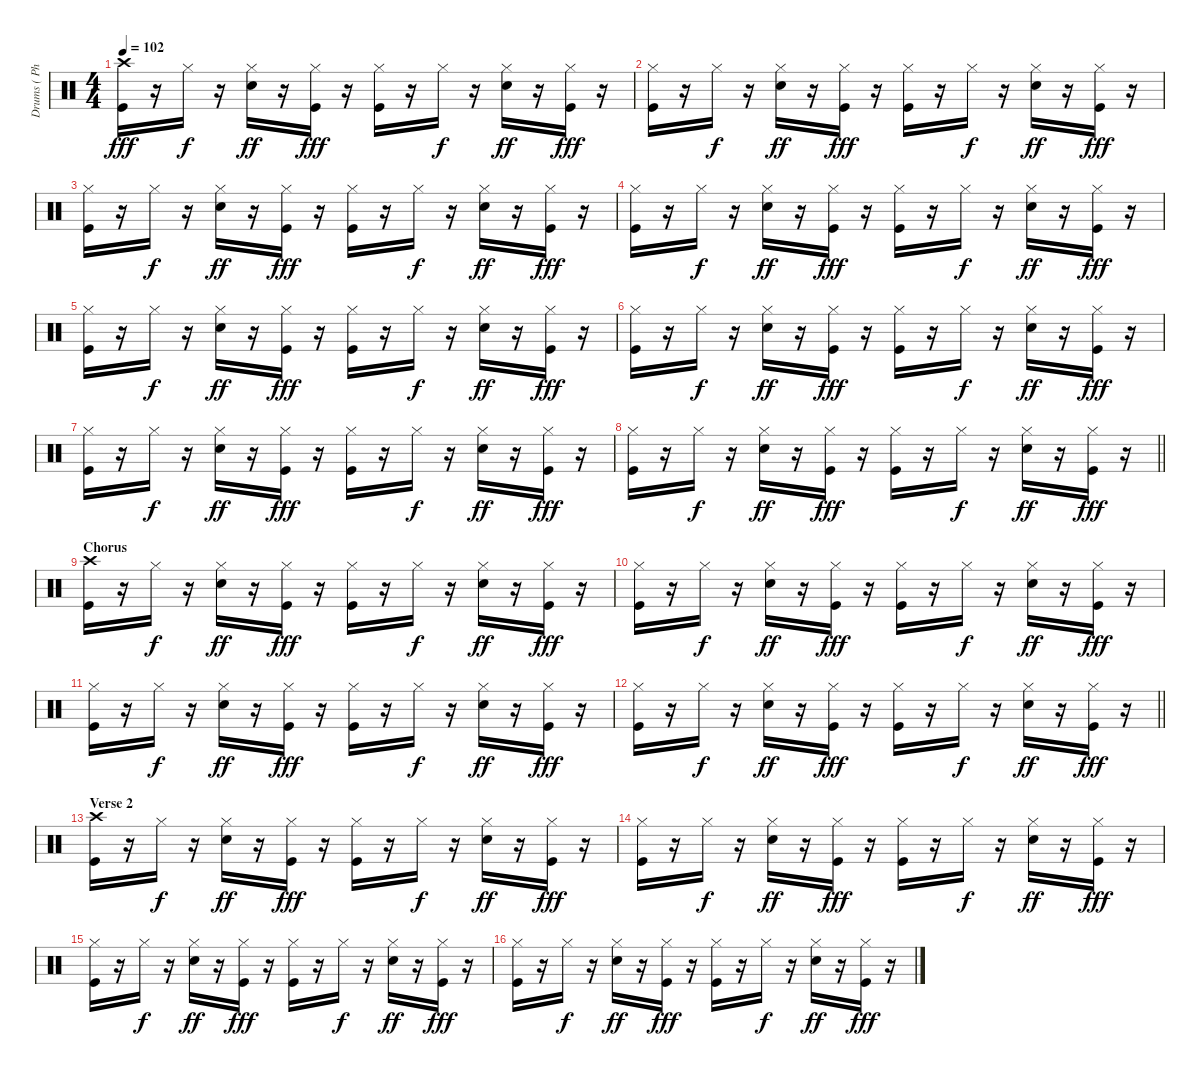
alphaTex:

\track ("Drums ( Phillip Selway )" "Drums ( Ph") {instrument percussion}
\staff {score}
\articulation defaults
\ts (4 4)
\tempo 102
\clef neutral
\ks c
("Crash high (hit)" "Kick (hit)").16{dy fff} r.16 "Hi-Hat (closed)".16{dy f} r.16 ("Hi-Hat (closed)" "Electric Snare (hit)").16{dy ff} r.16 ("Hi-Hat (closed)" "Kick (hit)").16{dy fff} r.16 ("Hi-Hat (closed)" "Kick (hit)").16 r.16 "Hi-Hat (closed)".16{dy f} r.16 ("Hi-Hat (closed)" "Electric Snare (hit)").16{dy ff} r.16 ("Hi-Hat (closed)" "Kick (hit)").16{dy fff} r.16 |
("Hi-Hat (closed)" "Kick (hit)").16 r.16 "Hi-Hat (closed)".16{dy f} r.16 ("Hi-Hat (closed)" "Electric Snare (hit)").16{dy ff} r.16 ("Hi-Hat (closed)" "Kick (hit)").16{dy fff} r.16 ("Hi-Hat (closed)" "Kick (hit)").16 r.16 "Hi-Hat (closed)".16{dy f} r.16 ("Hi-Hat (closed)" "Electric Snare (hit)").16{dy ff} r.16 ("Hi-Hat (closed)" "Kick (hit)").16{dy fff} r.16 |
("Hi-Hat (closed)" "Kick (hit)").16 r.16 "Hi-Hat (closed)".16{dy f} r.16 ("Hi-Hat (closed)" "Electric Snare (hit)").16{dy ff} r.16 ("Hi-Hat (closed)" "Kick (hit)").16{dy fff} r.16 ("Hi-Hat (closed)" "Kick (hit)").16 r.16 "Hi-Hat (closed)".16{dy f} r.16 ("Hi-Hat (closed)" "Electric Snare (hit)").16{dy ff} r.16 ("Hi-Hat (closed)" "Kick (hit)").16{dy fff} r.16 |
("Hi-Hat (closed)" "Kick (hit)").16 r.16 "Hi-Hat (closed)".16{dy f} r.16 ("Hi-Hat (closed)" "Electric Snare (hit)").16{dy ff} r.16 ("Hi-Hat (closed)" "Kick (hit)").16{dy fff} r.16 ("Hi-Hat (closed)" "Kick (hit)").16 r.16 "Hi-Hat (closed)".16{dy f} r.16 ("Hi-Hat (closed)" "Electric Snare (hit)").16{dy ff} r.16 ("Hi-Hat (closed)" "Kick (hit)").16{dy fff} r.16 |
("Hi-Hat (closed)" "Kick (hit)").16 r.16 "Hi-Hat (closed)".16{dy f} r.16 ("Hi-Hat (closed)" "Electric Snare (hit)").16{dy ff} r.16 ("Hi-Hat (closed)" "Kick (hit)").16{dy fff} r.16 ("Hi-Hat (closed)" "Kick (hit)").16 r.16 "Hi-Hat (closed)".16{dy f} r.16 ("Hi-Hat (closed)" "Electric Snare (hit)").16{dy ff} r.16 ("Hi-Hat (closed)" "Kick (hit)").16{dy fff} r.16 |
("Hi-Hat (closed)" "Kick (hit)").16 r.16 "Hi-Hat (closed)".16{dy f} r.16 ("Hi-Hat (closed)" "Electric Snare (hit)").16{dy ff} r.16 ("Hi-Hat (closed)" "Kick (hit)").16{dy fff} r.16 ("Hi-Hat (closed)" "Kick (hit)").16 r.16 "Hi-Hat (closed)".16{dy f} r.16 ("Hi-Hat (closed)" "Electric Snare (hit)").16{dy ff} r.16 ("Hi-Hat (closed)" "Kick (hit)").16{dy fff} r.16 |
("Hi-Hat (closed)" "Kick (hit)").16 r.16 "Hi-Hat (closed)".16{dy f} r.16 ("Hi-Hat (closed)" "Electric Snare (hit)").16{dy ff} r.16 ("Hi-Hat (closed)" "Kick (hit)").16{dy fff} r.16 ("Hi-Hat (closed)" "Kick (hit)").16 r.16 "Hi-Hat (closed)".16{dy f} r.16 ("Hi-Hat (closed)" "Electric Snare (hit)").16{dy ff} r.16 ("Hi-Hat (closed)" "Kick (hit)").16{dy fff} r.16 |
\barLineRight lightlight
("Hi-Hat (closed)" "Kick (hit)").16 r.16 "Hi-Hat (closed)".16{dy f} r.16 ("Hi-Hat (closed)" "Electric Snare (hit)").16{dy ff} r.16 ("Hi-Hat (closed)" "Kick (hit)").16{dy fff} r.16 ("Hi-Hat (closed)" "Kick (hit)").16 r.16 "Hi-Hat (closed)".16{dy f} r.16 ("Hi-Hat (closed)" "Electric Snare (hit)").16{dy ff} r.16 ("Hi-Hat (closed)" "Kick (hit)").16{dy fff} r.16 |
\section ("" "Chorus")
("Crash high (hit)" "Kick (hit)").16 r.16 "Hi-Hat (closed)".16{dy f} r.16 ("Hi-Hat (closed)" "Electric Snare (hit)").16{dy ff} r.16 ("Hi-Hat (closed)" "Kick (hit)").16{dy fff} r.16 ("Hi-Hat (closed)" "Kick (hit)").16 r.16 "Hi-Hat (closed)".16{dy f} r.16 ("Hi-Hat (closed)" "Electric Snare (hit)").16{dy ff} r.16 ("Hi-Hat (closed)" "Kick (hit)").16{dy fff} r.16 |
("Hi-Hat (closed)" "Kick (hit)").16 r.16 "Hi-Hat (closed)".16{dy f} r.16 ("Hi-Hat (closed)" "Electric Snare (hit)").16{dy ff} r.16 ("Hi-Hat (closed)" "Kick (hit)").16{dy fff} r.16 ("Hi-Hat (closed)" "Kick (hit)").16 r.16 "Hi-Hat (closed)".16{dy f} r.16 ("Hi-Hat (closed)" "Electric Snare (hit)").16{dy ff} r.16 ("Hi-Hat (closed)" "Kick (hit)").16{dy fff} r.16 |
("Hi-Hat (closed)" "Kick (hit)").16 r.16 "Hi-Hat (closed)".16{dy f} r.16 ("Hi-Hat (closed)" "Electric Snare (hit)").16{dy ff} r.16 ("Hi-Hat (closed)" "Kick (hit)").16{dy fff} r.16 ("Hi-Hat (closed)" "Kick (hit)").16 r.16 "Hi-Hat (closed)".16{dy f} r.16 ("Hi-Hat (closed)" "Electric Snare (hit)").16{dy ff} r.16 ("Hi-Hat (closed)" "Kick (hit)").16{dy fff} r.16 |
\barLineRight lightlight
("Hi-Hat (closed)" "Kick (hit)").16 r.16 "Hi-Hat (closed)".16{dy f} r.16 ("Hi-Hat (closed)" "Electric Snare (hit)").16{dy ff} r.16 ("Hi-Hat (closed)" "Kick (hit)").16{dy fff} r.16 ("Hi-Hat (closed)" "Kick (hit)").16 r.16 "Hi-Hat (closed)".16{dy f} r.16 ("Hi-Hat (closed)" "Electric Snare (hit)").16{dy ff} r.16 ("Hi-Hat (closed)" "Kick (hit)").16{dy fff} r.16 |
\section ("" "Verse 2")
("Crash high (hit)" "Kick (hit)").16 r.16 "Hi-Hat (closed)".16{dy f} r.16 ("Hi-Hat (closed)" "Electric Snare (hit)").16{dy ff} r.16 ("Hi-Hat (closed)" "Kick (hit)").16{dy fff} r.16 ("Hi-Hat (closed)" "Kick (hit)").16 r.16 "Hi-Hat (closed)".16{dy f} r.16 ("Hi-Hat (closed)" "Electric Snare (hit)").16{dy ff} r.16 ("Hi-Hat (closed)" "Kick (hit)").16{dy fff} r.16 |
("Hi-Hat (closed)" "Kick (hit)").16 r.16 "Hi-Hat (closed)".16{dy f} r.16 ("Hi-Hat (closed)" "Electric Snare (hit)").16{dy ff} r.16 ("Hi-Hat (closed)" "Kick (hit)").16{dy fff} r.16 ("Hi-Hat (closed)" "Kick (hit)").16 r.16 "Hi-Hat (closed)".16{dy f} r.16 ("Hi-Hat (closed)" "Electric Snare (hit)").16{dy ff} r.16 ("Hi-Hat (closed)" "Kick (hit)").16{dy fff} r.16 |
("Hi-Hat (closed)" "Kick (hit)").16 r.16 "Hi-Hat (closed)".16{dy f} r.16 ("Hi-Hat (closed)" "Electric Snare (hit)").16{dy ff} r.16 ("Hi-Hat (closed)" "Kick (hit)").16{dy fff} r.16 ("Hi-Hat (closed)" "Kick (hit)").16 r.16 "Hi-Hat (closed)".16{dy f} r.16 ("Hi-Hat (closed)" "Electric Snare (hit)").16{dy ff} r.16 ("Hi-Hat (closed)" "Kick (hit)").16{dy fff} r.16 |
("Hi-Hat (closed)" "Kick (hit)").16 r.16 "Hi-Hat (closed)".16{dy f} r.16 ("Hi-Hat (closed)" "Electric Snare (hit)").16{dy ff} r.16 ("Hi-Hat (closed)" "Kick (hit)").16{dy fff} r.16 ("Hi-Hat (closed)" "Kick (hit)").16 r.16 "Hi-Hat (closed)".16{dy f} r.16 ("Hi-Hat (closed)" "Electric Snare (hit)").16{dy ff} r.16 ("Hi-Hat (closed)" "Kick (hit)").16{dy fff} r.16
